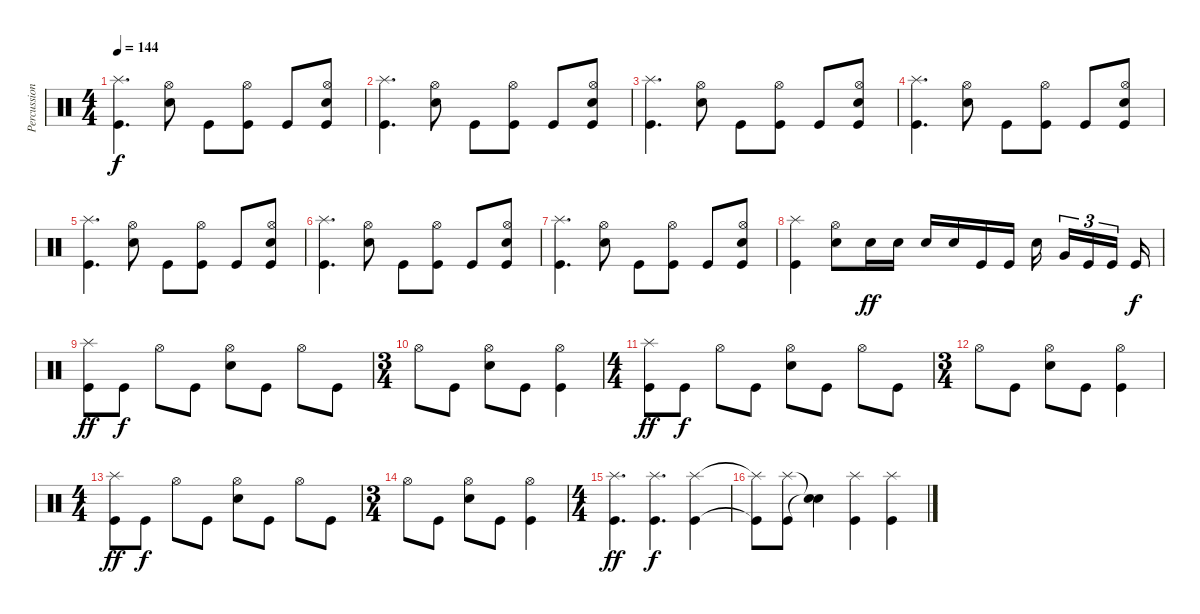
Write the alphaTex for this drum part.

\track ("Percussion" "Percussion") {instrument percussion}
\staff {score}
\articulation defaults
\ts (4 4)
\tempo 144
\clef neutral
\ks c
("Splash (hit)" "Kick (hit)").4{d dy f} ("Hi-Hat (open)" "Snare (hit) 2").8 "Kick (hit)".8 ("Hi-Hat (open)" "Kick (hit)").8 "Kick (hit)".8 ("Hi-Hat (open)" "Snare (hit) 2" "Kick (hit)").8 |
("Splash (hit)" "Kick (hit)").4{d} ("Hi-Hat (open)" "Snare (hit) 2").8 "Kick (hit)".8 ("Hi-Hat (open)" "Kick (hit)").8 "Kick (hit)".8 ("Hi-Hat (open)" "Snare (hit) 2" "Kick (hit)").8 |
("Splash (hit)" "Kick (hit)").4{d} ("Hi-Hat (open)" "Snare (hit) 2").8 "Kick (hit)".8 ("Hi-Hat (open)" "Kick (hit)").8 "Kick (hit)".8 ("Hi-Hat (open)" "Snare (hit) 2" "Kick (hit)").8 |
("Splash (hit)" "Kick (hit)").4{d} ("Hi-Hat (open)" "Snare (hit) 2").8 "Kick (hit)".8 ("Hi-Hat (open)" "Kick (hit)").8 "Kick (hit)".8 ("Hi-Hat (open)" "Snare (hit) 2" "Kick (hit)").8 |
("Splash (hit)" "Kick (hit)").4{d} ("Hi-Hat (open)" "Snare (hit) 2").8 "Kick (hit)".8 ("Hi-Hat (open)" "Kick (hit)").8 "Kick (hit)".8 ("Hi-Hat (open)" "Snare (hit) 2" "Kick (hit)").8 |
("Splash (hit)" "Kick (hit)").4{d} ("Hi-Hat (open)" "Snare (hit) 2").8 "Kick (hit)".8 ("Hi-Hat (open)" "Kick (hit)").8 "Kick (hit)".8 ("Hi-Hat (open)" "Snare (hit) 2" "Kick (hit)").8 |
("Splash (hit)" "Kick (hit)").4{d} ("Hi-Hat (open)" "Snare (hit) 2").8 "Kick (hit)".8 ("Hi-Hat (open)" "Kick (hit)").8 "Kick (hit)".8 ("Hi-Hat (open)" "Snare (hit) 2" "Kick (hit)").8 |
("Splash (hit)" "Kick (hit)").4 ("Hi-Hat (open)" "Snare (hit) 2").8 "Snare (hit) 2".16{dy ff} "Snare (hit) 2".16 "Snare (hit) 2".16 "Snare (hit) 2".16 "Kick (hit)".16 "Kick (hit)".16 "Snare (hit) 2".16{beam splitsecondary} "Very Low Tom (hit)".16{tu (3 2)} "Kick (hit)".16{tu (3 2)} "Kick (hit)".16{tu (3 2) beam splitsecondary} "Kick (hit)".16{dy f} |
("Splash (hit)" "Kick (hit)").8{dy ff} "Kick (hit)".8{dy f} "Hi-Hat (open)".8 "Kick (hit)".8 ("Hi-Hat (open)" "Snare (hit) 2").8 "Kick (hit)".8 "Hi-Hat (open)".8 "Kick (hit)".8 |
\ts (3 4)
"Hi-Hat (open)".8 "Kick (hit)".8 ("Hi-Hat (open)" "Snare (hit) 2").8 "Kick (hit)".8 ("Hi-Hat (open)" "Kick (hit)").4 |
\ts (4 4)
("Splash (hit)" "Kick (hit)").8{dy ff} "Kick (hit)".8{dy f} "Hi-Hat (open)".8 "Kick (hit)".8 ("Hi-Hat (open)" "Snare (hit) 2").8 "Kick (hit)".8 "Hi-Hat (open)".8 "Kick (hit)".8 |
\ts (3 4)
"Hi-Hat (open)".8 "Kick (hit)".8 ("Hi-Hat (open)" "Snare (hit) 2").8 "Kick (hit)".8 ("Hi-Hat (open)" "Kick (hit)").4 |
\ts (4 4)
("Splash (hit)" "Kick (hit)").8{dy ff} "Kick (hit)".8{dy f} "Hi-Hat (open)".8 "Kick (hit)".8 ("Hi-Hat (open)" "Snare (hit) 2").8 "Kick (hit)".8 "Hi-Hat (open)".8 "Kick (hit)".8 |
\ts (3 4)
"Hi-Hat (open)".8 "Kick (hit)".8 ("Hi-Hat (open)" "Snare (hit) 2").8 "Kick (hit)".8 ("Hi-Hat (open)" "Kick (hit)").4 |
\ts (4 4)
("Splash (hit)" "Kick (hit)").4{d dy ff} ("Splash (hit)" "Kick (hit)").4{d dy f} ("Splash (hit)" "Kick (hit)").4 |
("Splash (hit)"{t} "Kick (hit)"{t}).8 ("Splash (hit)" "Kick (hit)").8 ("Snare (hit)"{t} "Snare (hit)"{t}).4 ("Splash (hit)" "Kick (hit)").4 ("Splash (hit)" "Kick (hit)").4
